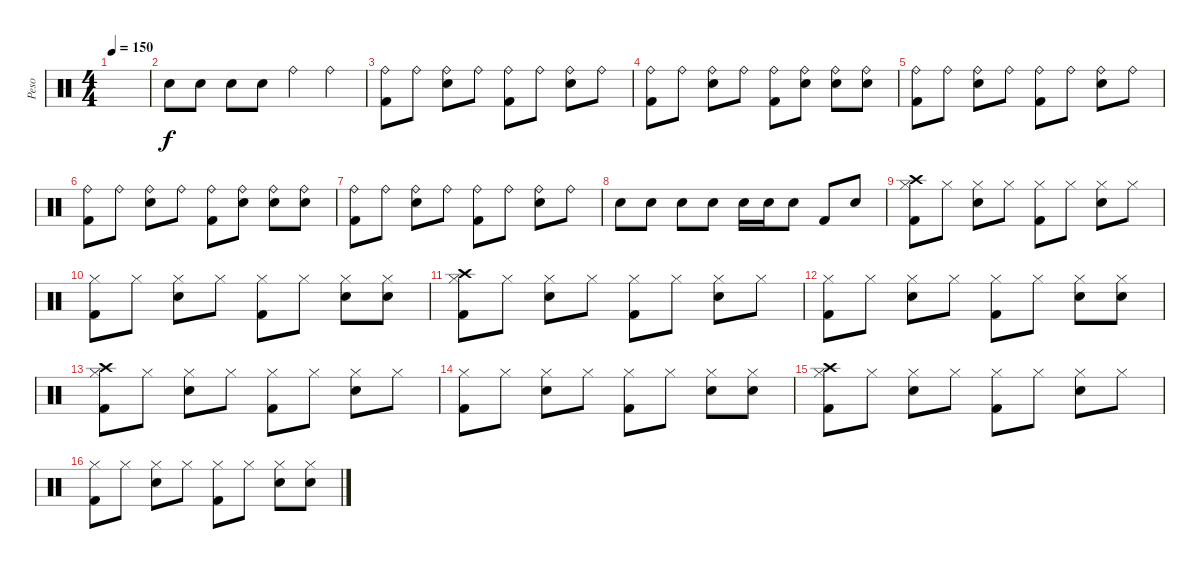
\track ("Peso" "Peso") {instrument percussion}
\staff {score}
\articulation defaults
\ts (4 4)
\tempo 150
\clef neutral
\ks c
|
"Snare (hit)"{x}.8 "Snare (hit)"{x}.8 "Snare (hit)"{x}.8 "Snare (hit)"{x}.8 "Ride (bell)".4 "Ride (bell)".4 |
("Ride (bell)" "Kick (hit) 2").8 "Ride (bell)".8 ("Ride (bell)" "Snare (hit) 2").8 "Ride (bell)".8 ("Ride (bell)" "Kick (hit) 2").8 "Ride (bell)".8 ("Ride (bell)" "Snare (hit) 2").8 "Ride (bell)".8 |
("Ride (bell)" "Kick (hit) 2").8 "Ride (bell)".8 ("Ride (bell)" "Snare (hit) 2").8 "Ride (bell)".8 ("Ride (bell)" "Kick (hit) 2").8 ("Ride (bell)" "Snare (hit) 2").8 ("Ride (bell)" "Snare (hit) 2").8 ("Ride (bell)" "Snare (hit) 2").8 |
("Ride (bell)" "Kick (hit) 2").8 "Ride (bell)".8 ("Ride (bell)" "Snare (hit) 2").8 "Ride (bell)".8 ("Ride (bell)" "Kick (hit) 2").8 "Ride (bell)".8 ("Ride (bell)" "Snare (hit) 2").8 "Ride (bell)".8 |
("Ride (bell)" "Kick (hit) 2").8 "Ride (bell)".8 ("Ride (bell)" "Snare (hit) 2").8 "Ride (bell)".8 ("Ride (bell)" "Kick (hit) 2").8 ("Ride (bell)" "Snare (hit) 2").8 ("Ride (bell)" "Snare (hit) 2").8 ("Ride (bell)" "Snare (hit) 2").8 |
("Ride (bell)" "Kick (hit) 2").8 "Ride (bell)".8 ("Ride (bell)" "Snare (hit) 2").8 "Ride (bell)".8 ("Ride (bell)" "Kick (hit) 2").8 "Ride (bell)".8 ("Ride (bell)" "Snare (hit) 2").8 "Ride (bell)".8 |
"Snare (hit) 2".8 "Snare (hit) 2".8 "Snare (hit) 2".8 "Snare (hit) 2".8 "Snare (hit) 2".16 "Snare (hit) 2".16 "Snare (hit) 2".8 "Kick (hit) 2".8 "Snare (hit) 2".8 |
("Crash high (hit)" "Hi-Hat (closed)" "Kick (hit) 2").8 "Hi-Hat (closed)".8 ("Hi-Hat (closed)" "Snare (hit) 2").8 "Hi-Hat (closed)".8 ("Hi-Hat (closed)" "Kick (hit) 2").8 "Hi-Hat (closed)".8 ("Hi-Hat (closed)" "Snare (hit) 2").8 "Hi-Hat (closed)".8 |
("Hi-Hat (closed)" "Kick (hit) 2").8 "Hi-Hat (closed)".8 ("Hi-Hat (closed)" "Snare (hit) 2").8 "Hi-Hat (closed)".8 ("Hi-Hat (closed)" "Kick (hit) 2").8 "Hi-Hat (closed)".8 ("Hi-Hat (closed)" "Snare (hit) 2").8 ("Hi-Hat (closed)" "Snare (hit) 2").8 |
("Crash high (hit)" "Hi-Hat (closed)" "Kick (hit) 2").8 "Hi-Hat (closed)".8 ("Hi-Hat (closed)" "Snare (hit) 2").8 "Hi-Hat (closed)".8 ("Hi-Hat (closed)" "Kick (hit) 2").8 "Hi-Hat (closed)".8 ("Hi-Hat (closed)" "Snare (hit) 2").8 "Hi-Hat (closed)".8 |
("Hi-Hat (closed)" "Kick (hit) 2").8 "Hi-Hat (closed)".8 ("Hi-Hat (closed)" "Snare (hit) 2").8 "Hi-Hat (closed)".8 ("Hi-Hat (closed)" "Kick (hit) 2").8 "Hi-Hat (closed)".8 ("Hi-Hat (closed)" "Snare (hit) 2").8 ("Hi-Hat (closed)" "Snare (hit) 2").8 |
("Crash high (hit)" "Hi-Hat (closed)" "Kick (hit) 2").8 "Hi-Hat (closed)".8 ("Hi-Hat (closed)" "Snare (hit) 2").8 "Hi-Hat (closed)".8 ("Hi-Hat (closed)" "Kick (hit) 2").8 "Hi-Hat (closed)".8 ("Hi-Hat (closed)" "Snare (hit) 2").8 "Hi-Hat (closed)".8 |
("Hi-Hat (closed)" "Kick (hit) 2").8 "Hi-Hat (closed)".8 ("Hi-Hat (closed)" "Snare (hit) 2").8 "Hi-Hat (closed)".8 ("Hi-Hat (closed)" "Kick (hit) 2").8 "Hi-Hat (closed)".8 ("Hi-Hat (closed)" "Snare (hit) 2").8 ("Hi-Hat (closed)" "Snare (hit) 2").8 |
("Crash high (hit)" "Hi-Hat (closed)" "Kick (hit) 2").8 "Hi-Hat (closed)".8 ("Hi-Hat (closed)" "Snare (hit) 2").8 "Hi-Hat (closed)".8 ("Hi-Hat (closed)" "Kick (hit) 2").8 "Hi-Hat (closed)".8 ("Hi-Hat (closed)" "Snare (hit) 2").8 "Hi-Hat (closed)".8 |
("Hi-Hat (closed)" "Kick (hit) 2").8 "Hi-Hat (closed)".8 ("Hi-Hat (closed)" "Snare (hit) 2").8 "Hi-Hat (closed)".8 ("Hi-Hat (closed)" "Kick (hit) 2").8 "Hi-Hat (closed)".8 ("Hi-Hat (closed)" "Snare (hit) 2").8 ("Hi-Hat (closed)" "Snare (hit) 2").8
